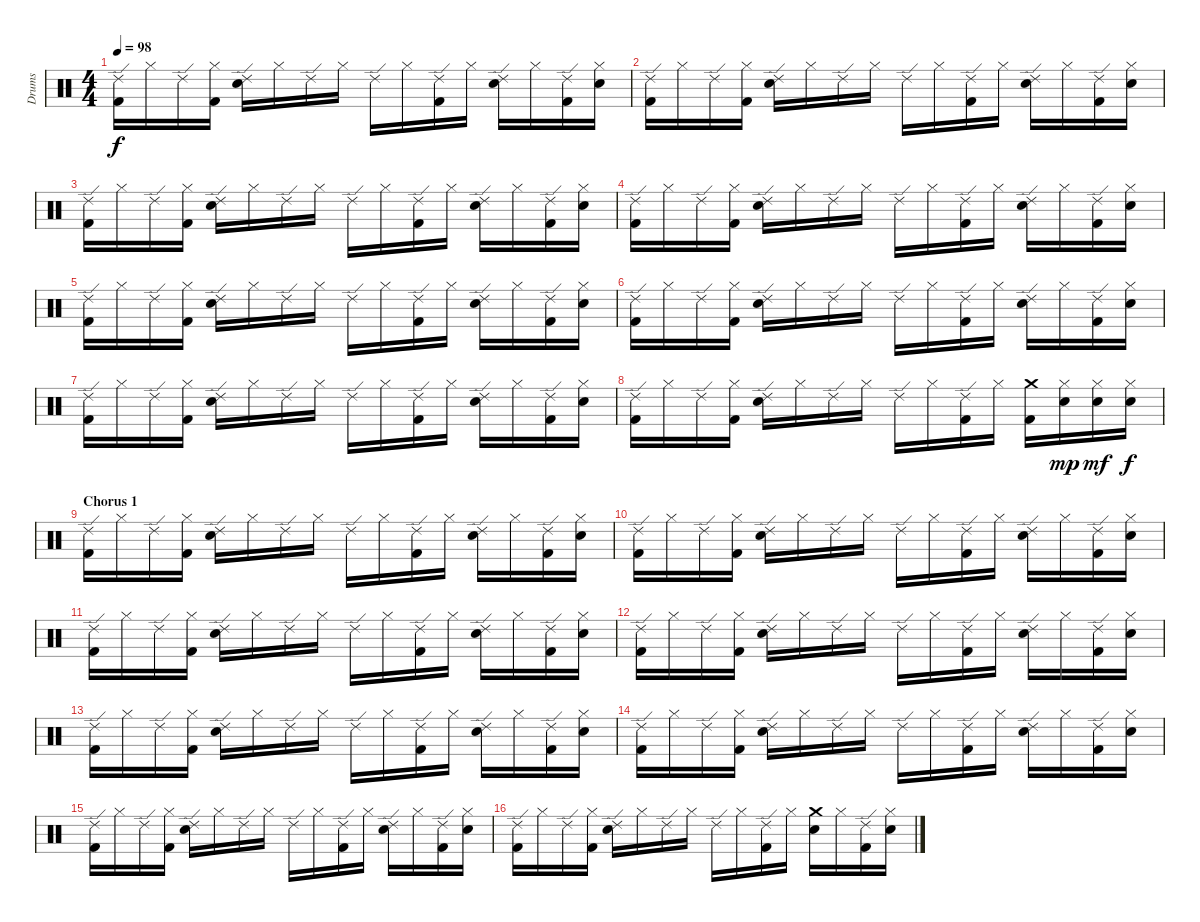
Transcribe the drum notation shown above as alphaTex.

\track ("Drums" "Drums") {instrument percussion}
\staff {score}
\articulation defaults
\ts (4 4)
\tempo 98
\clef neutral
\ks c
("Ride (edge) 2" "Kick (hit) 2").16{dy f} "Hi-Hat (closed)".16 "Ride (edge) 2".16 ("Hi-Hat (closed)" "Kick (hit) 2").16 ("Ride (edge) 2" "Electric Snare (hit)").16 "Hi-Hat (closed)".16 "Ride (edge) 2".16 "Hi-Hat (closed)".16 "Ride (edge) 2".16 "Hi-Hat (closed)".16 ("Ride (edge) 2" "Kick (hit) 2").16 "Hi-Hat (closed)".16 ("Ride (edge) 2" "Electric Snare (hit)").16 "Hi-Hat (closed)".16 ("Ride (edge) 2" "Kick (hit) 2").16 ("Hi-Hat (closed)" "Electric Snare (hit)").16 |
("Ride (edge) 2" "Kick (hit) 2").16 "Hi-Hat (closed)".16 "Ride (edge) 2".16 ("Hi-Hat (closed)" "Kick (hit) 2").16 ("Ride (edge) 2" "Electric Snare (hit)").16 "Hi-Hat (closed)".16 "Ride (edge) 2".16 "Hi-Hat (closed)".16 "Ride (edge) 2".16 "Hi-Hat (closed)".16 ("Ride (edge) 2" "Kick (hit) 2").16 "Hi-Hat (closed)".16 ("Ride (edge) 2" "Electric Snare (hit)").16 "Hi-Hat (closed)".16 ("Ride (edge) 2" "Kick (hit) 2").16 ("Hi-Hat (closed)" "Electric Snare (hit)").16 |
("Ride (edge) 2" "Kick (hit) 2").16 "Hi-Hat (closed)".16 "Ride (edge) 2".16 ("Hi-Hat (closed)" "Kick (hit) 2").16 ("Ride (edge) 2" "Electric Snare (hit)").16 "Hi-Hat (closed)".16 "Ride (edge) 2".16 "Hi-Hat (closed)".16 "Ride (edge) 2".16 "Hi-Hat (closed)".16 ("Ride (edge) 2" "Kick (hit) 2").16 "Hi-Hat (closed)".16 ("Ride (edge) 2" "Electric Snare (hit)").16 "Hi-Hat (closed)".16 ("Ride (edge) 2" "Kick (hit) 2").16 ("Hi-Hat (closed)" "Electric Snare (hit)").16 |
("Ride (edge) 2" "Kick (hit) 2").16 "Hi-Hat (closed)".16 "Ride (edge) 2".16 ("Hi-Hat (closed)" "Kick (hit) 2").16 ("Ride (edge) 2" "Electric Snare (hit)").16 "Hi-Hat (closed)".16 "Ride (edge) 2".16 "Hi-Hat (closed)".16 "Ride (edge) 2".16 "Hi-Hat (closed)".16 ("Ride (edge) 2" "Kick (hit) 2").16 "Hi-Hat (closed)".16 ("Ride (edge) 2" "Electric Snare (hit)").16 "Hi-Hat (closed)".16 ("Ride (edge) 2" "Kick (hit) 2").16 ("Hi-Hat (closed)" "Electric Snare (hit)").16 |
("Ride (edge) 2" "Kick (hit) 2").16 "Hi-Hat (closed)".16 "Ride (edge) 2".16 ("Hi-Hat (closed)" "Kick (hit) 2").16 ("Ride (edge) 2" "Electric Snare (hit)").16 "Hi-Hat (closed)".16 "Ride (edge) 2".16 "Hi-Hat (closed)".16 "Ride (edge) 2".16 "Hi-Hat (closed)".16 ("Ride (edge) 2" "Kick (hit) 2").16 "Hi-Hat (closed)".16 ("Ride (edge) 2" "Electric Snare (hit)").16 "Hi-Hat (closed)".16 ("Ride (edge) 2" "Kick (hit) 2").16 ("Hi-Hat (closed)" "Electric Snare (hit)").16 |
("Ride (edge) 2" "Kick (hit) 2").16 "Hi-Hat (closed)".16 "Ride (edge) 2".16 ("Hi-Hat (closed)" "Kick (hit) 2").16 ("Ride (edge) 2" "Electric Snare (hit)").16 "Hi-Hat (closed)".16 "Ride (edge) 2".16 "Hi-Hat (closed)".16 "Ride (edge) 2".16 "Hi-Hat (closed)".16 ("Ride (edge) 2" "Kick (hit) 2").16 "Hi-Hat (closed)".16 ("Ride (edge) 2" "Electric Snare (hit)").16 "Hi-Hat (closed)".16 ("Ride (edge) 2" "Kick (hit) 2").16 ("Hi-Hat (closed)" "Electric Snare (hit)").16 |
("Ride (edge) 2" "Kick (hit) 2").16 "Hi-Hat (closed)".16 "Ride (edge) 2".16 ("Hi-Hat (closed)" "Kick (hit) 2").16 ("Ride (edge) 2" "Electric Snare (hit)").16 "Hi-Hat (closed)".16 "Ride (edge) 2".16 "Hi-Hat (closed)".16 "Ride (edge) 2".16 "Hi-Hat (closed)".16 ("Ride (edge) 2" "Kick (hit) 2").16 "Hi-Hat (closed)".16 ("Ride (edge) 2" "Electric Snare (hit)").16 "Hi-Hat (closed)".16 ("Ride (edge) 2" "Kick (hit) 2").16 ("Hi-Hat (closed)" "Electric Snare (hit)").16 |
("Ride (edge) 2" "Kick (hit) 2").16 "Hi-Hat (closed)".16 "Ride (edge) 2".16 ("Hi-Hat (closed)" "Kick (hit) 2").16 ("Ride (edge) 2" "Electric Snare (hit)").16 "Hi-Hat (closed)".16 "Ride (edge) 2".16 "Hi-Hat (closed)".16 "Ride (edge) 2".16 "Hi-Hat (closed)".16 ("Ride (edge) 2" "Kick (hit) 2").16 "Hi-Hat (closed)".16 ("Crash medium (hit)" "Kick (hit) 2").16 ("Hi-Hat (closed)" "Electric Snare (hit)").16{dy mp} ("Hi-Hat (closed)" "Electric Snare (hit)").16{dy mf} ("Hi-Hat (closed)" "Electric Snare (hit)").16{dy f} |
\section ("" "Chorus 1")
("Ride (edge) 2" "Kick (hit) 2").16 "Hi-Hat (closed)".16 "Ride (edge) 2".16 ("Hi-Hat (closed)" "Kick (hit) 2").16 ("Ride (edge) 2" "Electric Snare (hit)").16 "Hi-Hat (closed)".16 "Ride (edge) 2".16 "Hi-Hat (closed)".16 "Ride (edge) 2".16 "Hi-Hat (closed)".16 ("Ride (edge) 2" "Kick (hit) 2").16 "Hi-Hat (closed)".16 ("Ride (edge) 2" "Electric Snare (hit)").16 "Hi-Hat (closed)".16 ("Ride (edge) 2" "Kick (hit) 2").16 ("Hi-Hat (closed)" "Electric Snare (hit)").16 |
("Ride (edge) 2" "Kick (hit) 2").16 "Hi-Hat (closed)".16 "Ride (edge) 2".16 ("Hi-Hat (closed)" "Kick (hit) 2").16 ("Ride (edge) 2" "Electric Snare (hit)").16 "Hi-Hat (closed)".16 "Ride (edge) 2".16 "Hi-Hat (closed)".16 "Ride (edge) 2".16 "Hi-Hat (closed)".16 ("Ride (edge) 2" "Kick (hit) 2").16 "Hi-Hat (closed)".16 ("Ride (edge) 2" "Electric Snare (hit)").16 "Hi-Hat (closed)".16 ("Ride (edge) 2" "Kick (hit) 2").16 ("Hi-Hat (closed)" "Electric Snare (hit)").16 |
("Ride (edge) 2" "Kick (hit) 2").16 "Hi-Hat (closed)".16 "Ride (edge) 2".16 ("Hi-Hat (closed)" "Kick (hit) 2").16 ("Ride (edge) 2" "Electric Snare (hit)").16 "Hi-Hat (closed)".16 "Ride (edge) 2".16 "Hi-Hat (closed)".16 "Ride (edge) 2".16 "Hi-Hat (closed)".16 ("Ride (edge) 2" "Kick (hit) 2").16 "Hi-Hat (closed)".16 ("Ride (edge) 2" "Electric Snare (hit)").16 "Hi-Hat (closed)".16 ("Ride (edge) 2" "Kick (hit) 2").16 ("Hi-Hat (closed)" "Electric Snare (hit)").16 |
("Ride (edge) 2" "Kick (hit) 2").16 "Hi-Hat (closed)".16 "Ride (edge) 2".16 ("Hi-Hat (closed)" "Kick (hit) 2").16 ("Ride (edge) 2" "Electric Snare (hit)").16 "Hi-Hat (closed)".16 "Ride (edge) 2".16 "Hi-Hat (closed)".16 "Ride (edge) 2".16 "Hi-Hat (closed)".16 ("Ride (edge) 2" "Kick (hit) 2").16 "Hi-Hat (closed)".16 ("Ride (edge) 2" "Electric Snare (hit)").16 "Hi-Hat (closed)".16 ("Ride (edge) 2" "Kick (hit) 2").16 ("Hi-Hat (closed)" "Electric Snare (hit)").16 |
("Ride (edge) 2" "Kick (hit) 2").16 "Hi-Hat (closed)".16 "Ride (edge) 2".16 ("Hi-Hat (closed)" "Kick (hit) 2").16 ("Ride (edge) 2" "Electric Snare (hit)").16 "Hi-Hat (closed)".16 "Ride (edge) 2".16 "Hi-Hat (closed)".16 "Ride (edge) 2".16 "Hi-Hat (closed)".16 ("Ride (edge) 2" "Kick (hit) 2").16 "Hi-Hat (closed)".16 ("Ride (edge) 2" "Electric Snare (hit)").16 "Hi-Hat (closed)".16 ("Ride (edge) 2" "Kick (hit) 2").16 ("Hi-Hat (closed)" "Electric Snare (hit)").16 |
("Ride (edge) 2" "Kick (hit) 2").16 "Hi-Hat (closed)".16 "Ride (edge) 2".16 ("Hi-Hat (closed)" "Kick (hit) 2").16 ("Ride (edge) 2" "Electric Snare (hit)").16 "Hi-Hat (closed)".16 "Ride (edge) 2".16 "Hi-Hat (closed)".16 "Ride (edge) 2".16 "Hi-Hat (closed)".16 ("Ride (edge) 2" "Kick (hit) 2").16 "Hi-Hat (closed)".16 ("Ride (edge) 2" "Electric Snare (hit)").16 "Hi-Hat (closed)".16 ("Ride (edge) 2" "Kick (hit) 2").16 ("Hi-Hat (closed)" "Electric Snare (hit)").16 |
("Ride (edge) 2" "Kick (hit) 2").16 "Hi-Hat (closed)".16 "Ride (edge) 2".16 ("Hi-Hat (closed)" "Kick (hit) 2").16 ("Ride (edge) 2" "Electric Snare (hit)").16 "Hi-Hat (closed)".16 "Ride (edge) 2".16 "Hi-Hat (closed)".16 "Ride (edge) 2".16 "Hi-Hat (closed)".16 ("Ride (edge) 2" "Kick (hit) 2").16 "Hi-Hat (closed)".16 ("Ride (edge) 2" "Electric Snare (hit)").16 "Hi-Hat (closed)".16 ("Ride (edge) 2" "Kick (hit) 2").16 ("Hi-Hat (closed)" "Electric Snare (hit)").16 |
("Ride (edge) 2" "Kick (hit) 2").16 "Hi-Hat (closed)".16 "Ride (edge) 2".16 ("Hi-Hat (closed)" "Kick (hit) 2").16 ("Ride (edge) 2" "Electric Snare (hit)").16 "Hi-Hat (closed)".16 "Ride (edge) 2".16 "Hi-Hat (closed)".16 "Ride (edge) 2".16 "Hi-Hat (closed)".16 ("Ride (edge) 2" "Kick (hit) 2").16 "Hi-Hat (closed)".16 ("Crash medium (hit)" "Electric Snare (hit)").16 "Hi-Hat (closed)".16 ("Ride (edge) 2" "Kick (hit) 2").16 ("Hi-Hat (closed)" "Electric Snare (hit)").16
